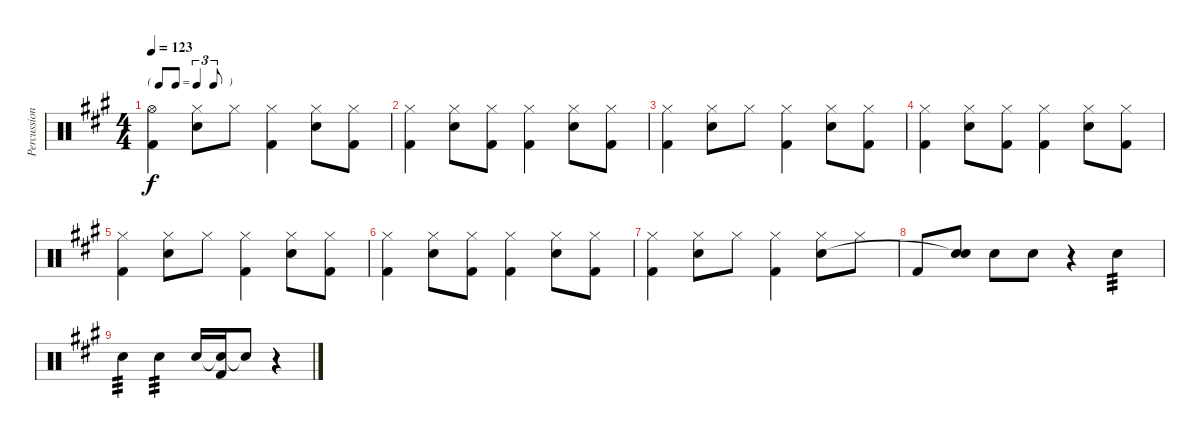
\track ("Percussion" "Percussion") {instrument percussion}
\staff {score}
\articulation defaults
\ts (4 4)
\tf triplet8th
\tempo 123
\clef neutral
\ks a
("Hi-Hat (open)" "Kick (hit) 2").4{dy f} ("Hi-Hat (closed)" "Snare (hit) 2").8 "Hi-Hat (closed)".8 ("Hi-Hat (closed)" "Kick (hit) 2").4 ("Hi-Hat (closed)" "Snare (hit) 2").8 ("Hi-Hat (closed)" "Kick (hit) 2").8 |
("Hi-Hat (closed)" "Kick (hit) 2").4 ("Hi-Hat (closed)" "Snare (hit) 2").8 ("Hi-Hat (closed)" "Kick (hit) 2").8 ("Hi-Hat (closed)" "Kick (hit) 2").4 ("Hi-Hat (closed)" "Snare (hit) 2").8 ("Hi-Hat (closed)" "Kick (hit) 2").8 |
("Hi-Hat (closed)" "Kick (hit) 2").4 ("Hi-Hat (closed)" "Snare (hit) 2").8 "Hi-Hat (closed)".8 ("Hi-Hat (closed)" "Kick (hit) 2").4 ("Hi-Hat (closed)" "Snare (hit) 2").8 ("Hi-Hat (closed)" "Kick (hit) 2").8 |
("Hi-Hat (closed)" "Kick (hit) 2").4 ("Hi-Hat (closed)" "Snare (hit) 2").8 ("Hi-Hat (closed)" "Kick (hit) 2").8 ("Hi-Hat (closed)" "Kick (hit) 2").4 ("Hi-Hat (closed)" "Snare (hit) 2").8 ("Hi-Hat (closed)" "Kick (hit) 2").8 |
("Hi-Hat (closed)" "Kick (hit) 2").4 ("Hi-Hat (closed)" "Snare (hit) 2").8 "Hi-Hat (closed)".8 ("Hi-Hat (closed)" "Kick (hit) 2").4 ("Hi-Hat (closed)" "Snare (hit) 2").8 ("Hi-Hat (closed)" "Kick (hit) 2").8 |
("Hi-Hat (closed)" "Kick (hit) 2").4 ("Hi-Hat (closed)" "Snare (hit) 2").8 ("Hi-Hat (closed)" "Kick (hit) 2").8 ("Hi-Hat (closed)" "Kick (hit) 2").4 ("Hi-Hat (closed)" "Snare (hit) 2").8 ("Hi-Hat (closed)" "Kick (hit) 2").8 |
("Hi-Hat (closed)" "Kick (hit) 2").4 ("Hi-Hat (closed)" "Snare (hit) 2").8 "Hi-Hat (closed)".8 ("Hi-Hat (closed)" "Kick (hit) 2").4 ("Hi-Hat (closed)" "Snare (hit) 2").8 "Hi-Hat (closed)".8 |
"Kick (hit) 2".8 ("Snare (hit) 2" "Snare (hit)"{t}).8 "Snare (hit) 2".8 "Snare (hit) 2".8 r.4 "Snare (hit) 2".4{tp 3} |
"Snare (hit) 2".4{tp 3} "Snare (hit) 2".4{tp 3} "Snare (hit) 2".16 ("Snare (hit)"{t} "Kick (hit) 2").16 "Snare (hit)"{t}.8 r.4
